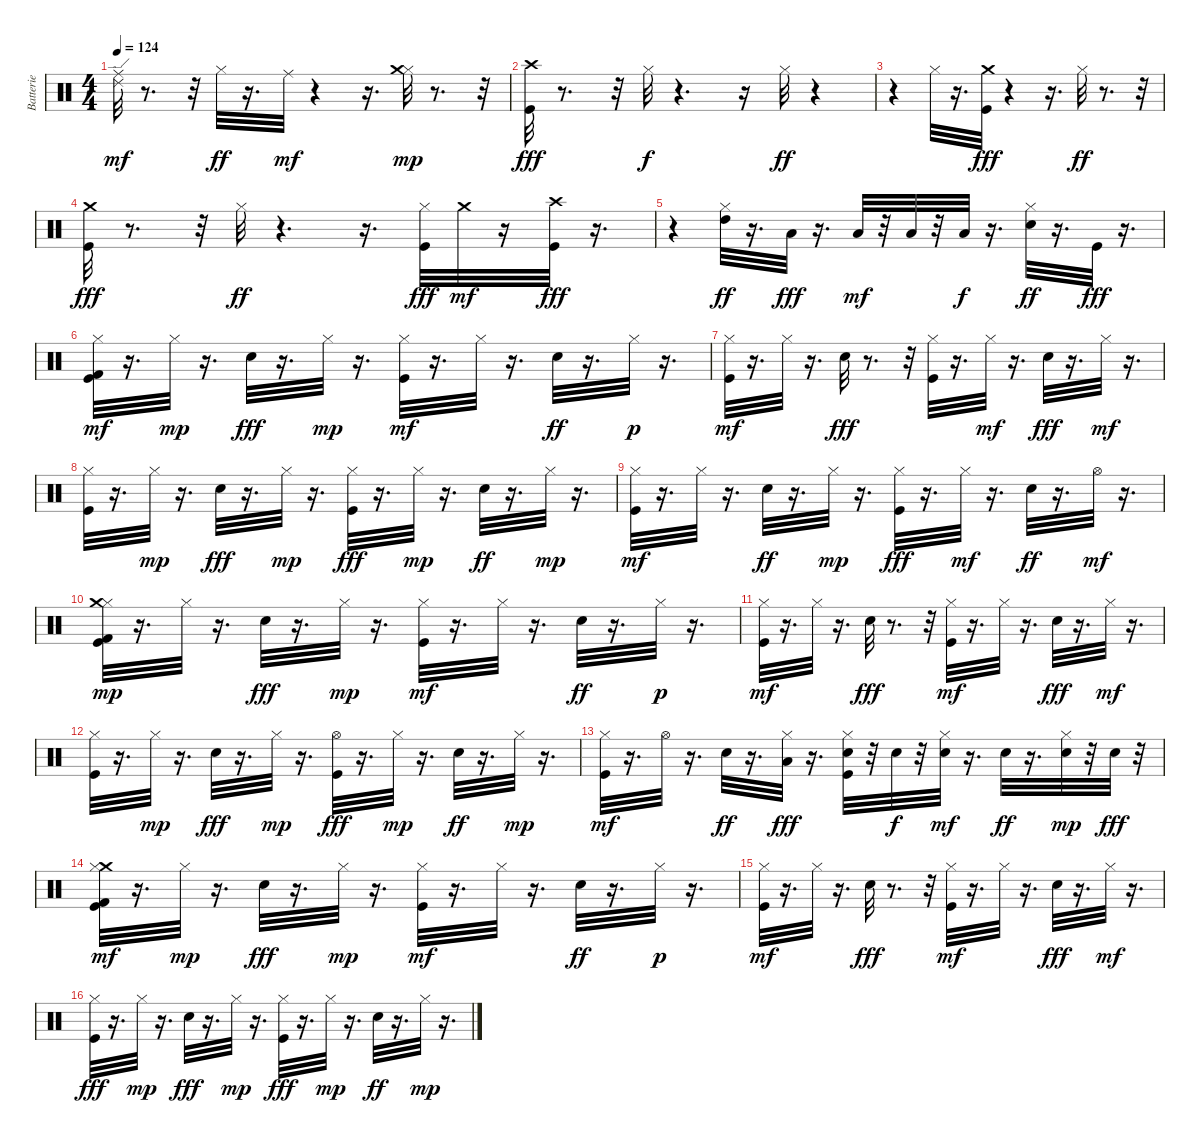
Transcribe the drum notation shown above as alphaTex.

\track ("Batterie" "Batterie") {instrument percussion}
\staff {score}
\articulation defaults
\ts (4 4)
\tempo 124
\clef neutral
\ks c
("Ride (middle)" "Ride (edge) 2").32{dy mf} r.8{d} r.32 "Hi-Hat (closed)".32{dy ff} r.16{d} "Ride (middle)".32{dy mf} r.4 r.16{d} ("Hi-Hat (closed)" "Crash medium (hit)").32{dy mp} r.8{d} r.32 |
("Crash high (hit)" "Kick (hit)").32{dy fff} r.8{d} r.32 "Hi-Hat (closed)".32{dy f} r.4{d} r.16 "Hi-Hat (closed)".32{dy ff} r.4 |
r.4 "Hi-Hat (closed)".32 r.16{d} ("Crash medium (hit)" "Kick (hit)").32{dy fff} r.4 r.16{d} "Hi-Hat (closed)".32{dy ff} r.8{d} r.32 |
("Kick (hit)" "Crash medium (hit)").32{dy fff} r.8{d} r.32 "Hi-Hat (closed)".32{dy ff} r.4{d} r.16{d} ("Hi-Hat (closed)" "Kick (hit)").32{dy fff} "Crash medium (hit)".32{dy mf} r.16 ("Crash high (hit)" "Kick (hit)").32{dy fff} r.16{d} |
r.4 ("High Tom (hit)" "Hi-Hat (closed)").32{dy ff} r.16{d} "Low Tom (hit)".32{dy fff} r.16{d} "Low Tom (hit)".32{dy mf} r.32 "Low Tom (hit)".32 r.32 "Low Tom (hit)".32{dy f} r.16{d} ("Snare (hit) 2" "Hi-Hat (closed)").32{dy ff} r.16{d} "Kick (hit)".32{dy fff} r.16{d} |
("Kick (hit)" "Kick (hit) 2" "Hi-Hat (closed)").32{dy mf volume 14} r.16{d} "Hi-Hat (closed)".32{dy mp} r.16{d} "Electric Snare (hit)".32{dy fff} r.16{d} "Hi-Hat (closed)".32{dy mp} r.16{d} ("Kick (hit)" "Hi-Hat (closed)").32{dy mf} r.16{d} "Hi-Hat (closed)".32 r.16{d} "Electric Snare (hit)".32{dy ff} r.16{d} "Hi-Hat (closed)".32{dy p} r.16{d} |
("Kick (hit)" "Hi-Hat (closed)").32{dy mf} r.16{d} "Hi-Hat (closed)".32 r.16{d} "Electric Snare (hit)".32{dy fff} r.8{d} r.32 ("Hi-Hat (closed)" "Kick (hit)").32 r.16{d} "Hi-Hat (closed)".32{dy mf} r.16{d} "Electric Snare (hit)".32{dy fff} r.16{d} "Hi-Hat (closed)".32{dy mf} r.16{d} |
("Kick (hit)" "Hi-Hat (closed)").32 r.16{d} "Hi-Hat (closed)".32{dy mp} r.16{d} "Electric Snare (hit)".32{dy fff} r.16{d} "Hi-Hat (closed)".32{dy mp} r.16{d} ("Kick (hit)" "Hi-Hat (closed)").32{dy fff} r.16{d} "Hi-Hat (closed)".32{dy mp} r.16{d} "Electric Snare (hit)".32{dy ff} r.16{d} "Hi-Hat (closed)".32{dy mp} r.16{d} |
("Kick (hit)" "Hi-Hat (closed)").32{dy mf} r.16{d} "Hi-Hat (closed)".32 r.16{d} "Electric Snare (hit)".32{dy ff} r.16{d} "Hi-Hat (closed)".32{dy mp} r.16{d} ("Hi-Hat (closed)" "Kick (hit)").32{dy fff} r.16{d} "Hi-Hat (closed)".32{dy mf} r.16{d} "Electric Snare (hit)".32{dy ff} r.16{d} "Hi-Hat (open)".32{dy mf} r.16{d} |
("Kick (hit) 2" "Kick (hit)" "Hi-Hat (closed)" "Crash medium (hit)").32{dy mp} r.16{d} "Hi-Hat (closed)".32 r.16{d} "Electric Snare (hit)".32{dy fff} r.16{d} "Hi-Hat (closed)".32{dy mp} r.16{d} ("Kick (hit)" "Hi-Hat (closed)").32{dy mf} r.16{d} "Hi-Hat (closed)".32 r.16{d} "Electric Snare (hit)".32{dy ff} r.16{d} "Hi-Hat (closed)".32{dy p} r.16{d} |
("Kick (hit)" "Hi-Hat (closed)").32{dy mf} r.16{d} "Hi-Hat (closed)".32 r.16{d} "Electric Snare (hit)".32{dy fff} r.8{d} r.32 ("Kick (hit)" "Hi-Hat (closed)").32{dy mf} r.16{d} "Hi-Hat (closed)".32 r.16{d} "Electric Snare (hit)".32{dy fff} r.16{d} "Hi-Hat (closed)".32{dy mf} r.16{d} |
("Kick (hit)" "Hi-Hat (closed)").32 r.16{d} "Hi-Hat (closed)".32{dy mp} r.16{d} "Electric Snare (hit)".32{dy fff} r.16{d} "Hi-Hat (closed)".32{dy mp} r.16{d} ("Kick (hit)" "Hi-Hat (open)").32{dy fff} r.16{d} "Hi-Hat (closed)".32{dy mp} r.16{d} "Electric Snare (hit)".32{dy ff} r.16{d} "Hi-Hat (closed)".32{dy mp} r.16{d} |
("Kick (hit)" "Hi-Hat (closed)").32{dy mf} r.16{d} "Hi-Hat (open)".32 r.16{d} "Electric Snare (hit)".32{dy ff} r.16{d} ("Hi-Hat (closed)" "Low Tom (hit)").32{dy fff} r.16{d} ("Hi-Hat (closed)" "Electric Snare (hit)" "Kick (hit)").32 r.32 "Electric Snare (hit)".32{dy f} r.32 ("Electric Snare (hit)" "Hi-Hat (closed)").32{dy mf} r.16{d} "Electric Snare (hit)".32{dy ff} r.16{d} ("Electric Snare (hit)" "Hi-Hat (closed)").32{dy mp} r.32 "Electric Snare (hit)".32{dy fff} r.32 |
("Kick (hit) 2" "Kick (hit)" "Crash medium (hit)" "Hi-Hat (closed)").32{dy mf} r.16{d} "Hi-Hat (closed)".32{dy mp} r.16{d} "Electric Snare (hit)".32{dy fff} r.16{d} "Hi-Hat (closed)".32{dy mp} r.16{d} ("Kick (hit)" "Hi-Hat (closed)").32{dy mf} r.16{d} "Hi-Hat (closed)".32 r.16{d} "Electric Snare (hit)".32{dy ff} r.16{d} "Hi-Hat (closed)".32{dy p} r.16{d} |
("Kick (hit)" "Hi-Hat (closed)").32{dy mf} r.16{d} "Hi-Hat (closed)".32 r.16{d} "Electric Snare (hit)".32{dy fff} r.8{d} r.32 ("Kick (hit)" "Hi-Hat (closed)").32{dy mf} r.16{d} "Hi-Hat (closed)".32 r.16{d} "Electric Snare (hit)".32{dy fff} r.16{d} "Hi-Hat (closed)".32{dy mf} r.16{d} |
("Hi-Hat (closed)" "Kick (hit)").32{dy fff} r.16{d} "Hi-Hat (closed)".32{dy mp} r.16{d} "Electric Snare (hit)".32{dy fff} r.16{d} "Hi-Hat (closed)".32{dy mp} r.16{d} ("Kick (hit)" "Hi-Hat (closed)").32{dy fff} r.16{d} "Hi-Hat (closed)".32{dy mp} r.16{d} "Electric Snare (hit)".32{dy ff} r.16{d} "Hi-Hat (closed)".32{dy mp} r.16{d}
